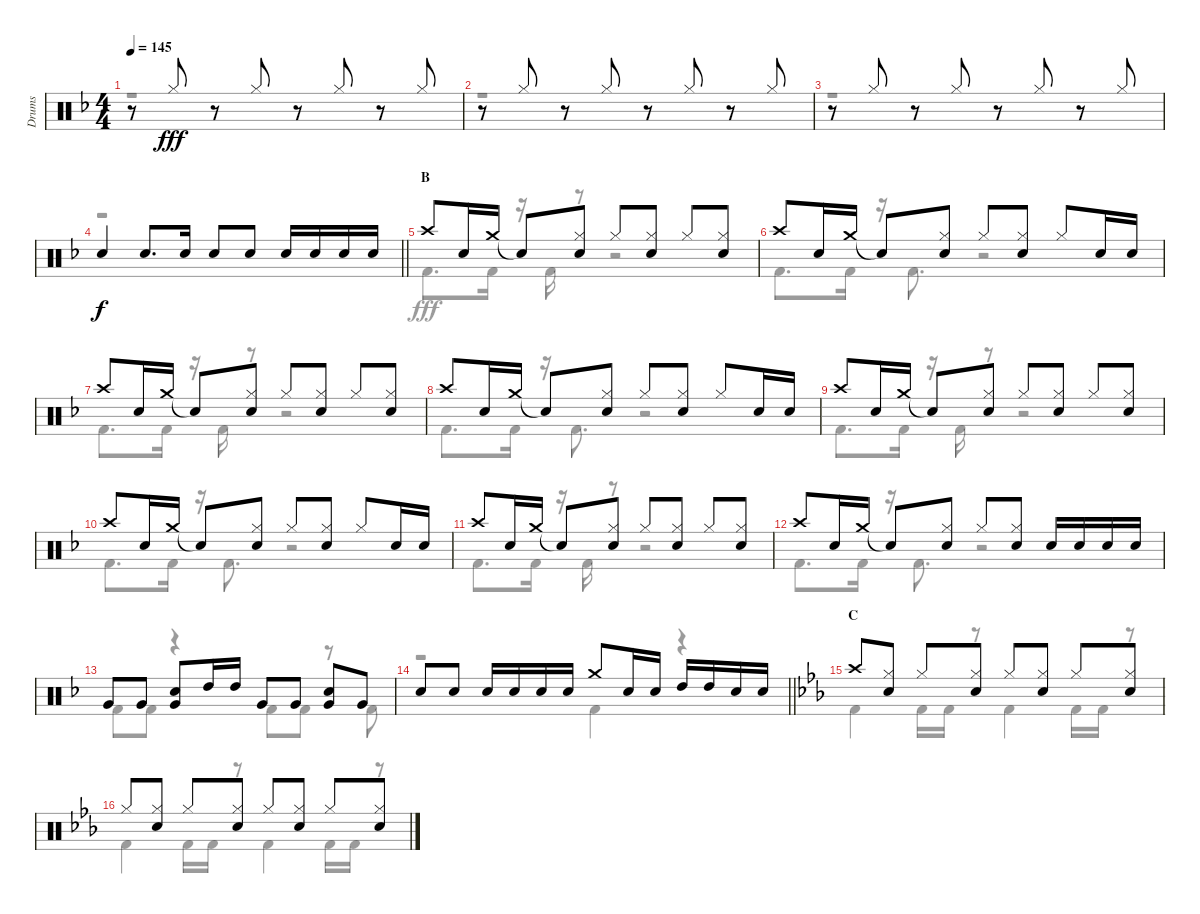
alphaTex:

\track ("Drums" "Drums") {instrument percussion}
\staff {score}
\articulation defaults
\voice
\ts (4 4)
\tempo 145
\clef neutral
\ks f
r.8{dy f} "Hi-Hat (closed)".8{dy fff} r.8 "Hi-Hat (closed)".8 r.8 "Hi-Hat (closed)".8 r.8 "Hi-Hat (closed)".8 |
r.8 "Hi-Hat (closed)".8 r.8 "Hi-Hat (closed)".8 r.8 "Hi-Hat (closed)".8 r.8 "Hi-Hat (closed)".8 |
r.8 "Hi-Hat (closed)".8 r.8 "Hi-Hat (closed)".8 r.8 "Hi-Hat (closed)".8 r.8 "Hi-Hat (closed)".8 |
\barLineRight lightlight "Snare (hit) 2".4{dy f} "Snare (hit) 2".8{d} "Snare (hit) 2".16 "Snare (hit) 2".8 "Snare (hit) 2".8 "Snare (hit) 2".16 "Snare (hit) 2".16 "Snare (hit) 2".16 "Snare (hit) 2".16
|
\section ("" "B")
"Crash high (hit)".8 "Snare (hit) 2".16 "Crash medium (hit)".16 "Snare (hit)"{t}.8 ("Hi-Hat (closed)" "Snare (hit) 2").8 "Hi-Hat (closed)".8 ("Hi-Hat (closed)" "Snare (hit) 2").8 "Hi-Hat (closed)".8 ("Hi-Hat (closed)" "Snare (hit) 2").8 |
"Crash high (hit)".8 "Snare (hit) 2".16 "Crash medium (hit)".16 "Snare (hit)"{t}.8 ("Hi-Hat (closed)" "Snare (hit) 2").8 "Hi-Hat (closed)".8 ("Hi-Hat (closed)" "Snare (hit) 2").8 "Hi-Hat (closed)".8 "Snare (hit) 2".16 "Snare (hit) 2".16 |
"Crash high (hit)".8 "Snare (hit) 2".16 "Crash medium (hit)".16 "Snare (hit)"{t}.8 ("Hi-Hat (closed)" "Snare (hit) 2").8 "Hi-Hat (closed)".8 ("Hi-Hat (closed)" "Snare (hit) 2").8 "Hi-Hat (closed)".8 ("Hi-Hat (closed)" "Snare (hit) 2").8 |
"Crash high (hit)".8 "Snare (hit) 2".16 "Crash medium (hit)".16 "Snare (hit)"{t}.8 ("Hi-Hat (closed)" "Snare (hit) 2").8 "Hi-Hat (closed)".8 ("Hi-Hat (closed)" "Snare (hit) 2").8 "Hi-Hat (closed)".8 "Snare (hit) 2".16 "Snare (hit) 2".16 |
"Crash high (hit)".8 "Snare (hit) 2".16 "Crash medium (hit)".16 "Snare (hit)"{t}.8 ("Hi-Hat (closed)" "Snare (hit) 2").8 "Hi-Hat (closed)".8 ("Hi-Hat (closed)" "Snare (hit) 2").8 "Hi-Hat (closed)".8 ("Hi-Hat (closed)" "Snare (hit) 2").8 |
"Crash high (hit)".8 "Snare (hit) 2".16 "Crash medium (hit)".16 "Snare (hit)"{t}.8 ("Hi-Hat (closed)" "Snare (hit) 2").8 "Hi-Hat (closed)".8 ("Hi-Hat (closed)" "Snare (hit) 2").8 "Hi-Hat (closed)".8 "Snare (hit) 2".16 "Snare (hit) 2".16 |
"Crash high (hit)".8 "Snare (hit) 2".16 "Crash medium (hit)".16 "Snare (hit)"{t}.8 ("Hi-Hat (closed)" "Snare (hit) 2").8 "Hi-Hat (closed)".8 ("Hi-Hat (closed)" "Snare (hit) 2").8 "Hi-Hat (closed)".8 ("Hi-Hat (closed)" "Snare (hit) 2").8 |
"Crash high (hit)".8 "Snare (hit) 2".16 "Crash medium (hit)".16 "Snare (hit)"{t}.8 ("Hi-Hat (closed)" "Snare (hit) 2").8 "Hi-Hat (closed)".8 ("Hi-Hat (closed)" "Snare (hit) 2").8 "Snare (hit) 2".16 "Snare (hit) 2".16 "Snare (hit) 2".16 "Snare (hit) 2".16 |
"Very Low Tom (hit)".8 "Very Low Tom (hit)".8 ("Snare (hit) 2" "Very Low Tom (hit)").8 "High Tom (hit)".16 "High Tom (hit)".16 "Very Low Tom (hit)".8 "Very Low Tom (hit)".8 ("Snare (hit) 2" "Very Low Tom (hit)").8 "Very Low Tom (hit)".8 |
\barLineRight lightlight "Snare (hit) 2".8 "Snare (hit) 2".8 "Snare (hit) 2".16 "Snare (hit) 2".16 "Snare (hit) 2".16 "Snare (hit) 2".16 "Crash medium (hit)".8 "Snare (hit) 2".16 "Snare (hit) 2".16 "High Tom (hit)".16 "High Tom (hit)".16 "Snare (hit) 2".16 "Snare (hit) 2".16
|
\section ("" "C")
\ks eb "Crash high (hit)".8
("Hi-Hat (closed)" "Snare (hit) 2").8 "Hi-Hat (closed)".8 ("Hi-Hat (closed)" "Snare (hit) 2").8 "Hi-Hat (closed)".8 ("Hi-Hat (closed)" "Snare (hit) 2").8 "Hi-Hat (closed)".8 ("Hi-Hat (closed)" "Snare (hit) 2").8 |
"Hi-Hat (closed)".8 ("Hi-Hat (closed)" "Snare (hit) 2").8 "Hi-Hat (closed)".8 ("Hi-Hat (closed)" "Snare (hit) 2").8 "Hi-Hat (closed)".8 ("Hi-Hat (closed)" "Snare (hit) 2").8 "Hi-Hat (closed)".8 ("Hi-Hat (closed)" "Snare (hit) 2").8
\voice
\clef neutral
\ottava regular
\simile none
\ks f
r.1{dy fff} |
r.1 |
r.1 |
\barLineRight lightlight
r.1 |
"Kick (hit) 2".8{d} "Kick (hit) 2".16 r.16 "Kick (hit) 2".16 r.8 r.2 |
"Kick (hit) 2".8{d} "Kick (hit) 2".16 r.16 "Kick (hit) 2".8{d} r.2 |
"Kick (hit) 2".8{d} "Kick (hit) 2".16 r.16 "Kick (hit) 2".16 r.8 r.2 |
"Kick (hit) 2".8{d} "Kick (hit) 2".16 r.16 "Kick (hit) 2".8{d} r.2 |
"Kick (hit) 2".8{d} "Kick (hit) 2".16 r.16 "Kick (hit) 2".16 r.8 r.2 |
"Kick (hit) 2".8{d} "Kick (hit) 2".16 r.16 "Kick (hit) 2".8{d} r.2 |
"Kick (hit) 2".8{d} "Kick (hit) 2".16 r.16 "Kick (hit) 2".16 r.8 r.2 |
"Kick (hit) 2".8{d} "Kick (hit) 2".16 r.16 "Kick (hit) 2".8{d} r.2 |
"Kick (hit) 2".8 "Kick (hit) 2".8 r.4 "Kick (hit) 2".8 "Kick (hit) 2".8 r.8 "Kick (hit) 2".8 |
\barLineRight lightlight
r.2 "Kick (hit) 2".4 r.4 |
\ks eb "Kick (hit) 2".4 "Kick (hit) 2".16 "Kick (hit) 2".16
r.8 "Kick (hit) 2".4 "Kick (hit) 2".16 "Kick (hit) 2".16 r.8 |
"Kick (hit) 2".4 "Kick (hit) 2".16 "Kick (hit) 2".16 r.8 "Kick (hit) 2".4 "Kick (hit) 2".16 "Kick (hit) 2".16 r.8
